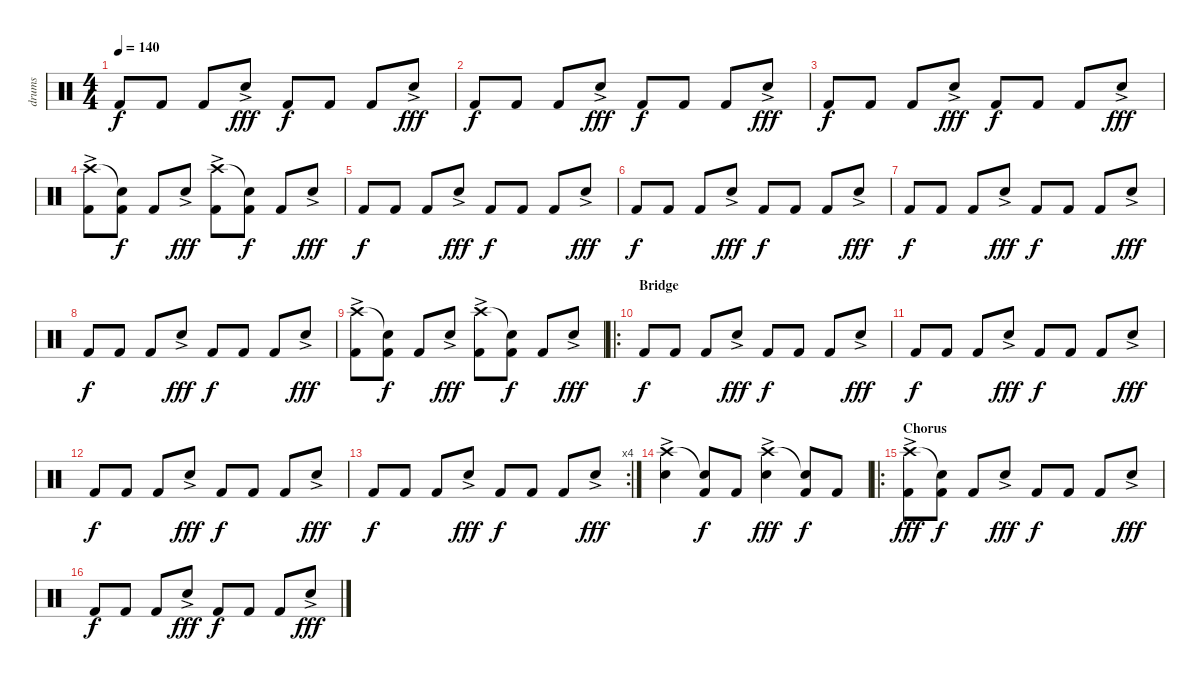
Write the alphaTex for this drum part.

\track ("drums" "drums") {instrument percussion}
\staff {score}
\articulation defaults
\ts (4 4)
\tempo 140
\clef neutral
\ks c "Kick (hit) 2".8{dy f} "Kick (hit) 2".8 "Kick (hit) 2".8 "Snare (hit) 2"{ac}.8{dy fff} "Kick (hit) 2".8{dy f} "Kick (hit) 2".8 "Kick (hit) 2".8 "Snare (hit) 2"{ac}.8{dy fff}
|
"Kick (hit) 2".8{dy f} "Kick (hit) 2".8 "Kick (hit) 2".8 "Snare (hit) 2"{ac}.8{dy fff} "Kick (hit) 2".8{dy f} "Kick (hit) 2".8 "Kick (hit) 2".8 "Snare (hit) 2"{ac}.8{dy fff} |
"Kick (hit) 2".8{dy f} "Kick (hit) 2".8 "Kick (hit) 2".8 "Snare (hit) 2"{ac}.8{dy fff} "Kick (hit) 2".8{dy f} "Kick (hit) 2".8 "Kick (hit) 2".8 "Snare (hit) 2"{ac}.8{dy fff} |
("Crash high (hit)"{ac} "Kick (hit) 2"{ac}).8 ("Snare (hit)"{t} "Kick (hit) 2").8{dy f} "Kick (hit) 2".8 "Snare (hit) 2"{ac}.8{dy fff} ("Crash high (hit)"{ac} "Kick (hit) 2"{ac}).8 ("Snare (hit)"{t} "Kick (hit) 2").8{dy f} "Kick (hit) 2".8 "Snare (hit) 2"{ac}.8{dy fff} |
"Kick (hit) 2".8{dy f} "Kick (hit) 2".8 "Kick (hit) 2".8 "Snare (hit) 2"{ac}.8{dy fff} "Kick (hit) 2".8{dy f} "Kick (hit) 2".8 "Kick (hit) 2".8 "Snare (hit) 2"{ac}.8{dy fff} |
"Kick (hit) 2".8{dy f} "Kick (hit) 2".8 "Kick (hit) 2".8 "Snare (hit) 2"{ac}.8{dy fff} "Kick (hit) 2".8{dy f} "Kick (hit) 2".8 "Kick (hit) 2".8 "Snare (hit) 2"{ac}.8{dy fff} |
"Kick (hit) 2".8{dy f} "Kick (hit) 2".8 "Kick (hit) 2".8 "Snare (hit) 2"{ac}.8{dy fff} "Kick (hit) 2".8{dy f} "Kick (hit) 2".8 "Kick (hit) 2".8 "Snare (hit) 2"{ac}.8{dy fff} |
"Kick (hit) 2".8{dy f} "Kick (hit) 2".8 "Kick (hit) 2".8 "Snare (hit) 2"{ac}.8{dy fff} "Kick (hit) 2".8{dy f} "Kick (hit) 2".8 "Kick (hit) 2".8 "Snare (hit) 2"{ac}.8{dy fff} |
("Crash high (hit)"{ac} "Kick (hit) 2"{ac}).8 ("Snare (hit)"{t} "Kick (hit) 2").8{dy f} "Kick (hit) 2".8 "Snare (hit) 2"{ac}.8{dy fff} ("Crash high (hit)"{ac} "Kick (hit) 2"{ac}).8 ("Snare (hit)"{t} "Kick (hit) 2").8{dy f} "Kick (hit) 2".8 "Snare (hit) 2"{ac}.8{dy fff} |
\ro
\section ("" "Bridge")
"Kick (hit) 2".8{dy f} "Kick (hit) 2".8 "Kick (hit) 2".8 "Snare (hit) 2"{ac}.8{dy fff} "Kick (hit) 2".8{dy f} "Kick (hit) 2".8 "Kick (hit) 2".8 "Snare (hit) 2"{ac}.8{dy fff} |
"Kick (hit) 2".8{dy f} "Kick (hit) 2".8 "Kick (hit) 2".8 "Snare (hit) 2"{ac}.8{dy fff} "Kick (hit) 2".8{dy f} "Kick (hit) 2".8 "Kick (hit) 2".8 "Snare (hit) 2"{ac}.8{dy fff} |
"Kick (hit) 2".8{dy f} "Kick (hit) 2".8 "Kick (hit) 2".8 "Snare (hit) 2"{ac}.8{dy fff} "Kick (hit) 2".8{dy f} "Kick (hit) 2".8 "Kick (hit) 2".8 "Snare (hit) 2"{ac}.8{dy fff} |
\rc 4 "Kick (hit) 2".8{dy f} "Kick (hit) 2".8 "Kick (hit) 2".8 "Snare (hit) 2"{ac}.8{dy fff} "Kick (hit) 2".8{dy f} "Kick (hit) 2".8 "Kick (hit) 2".8 "Snare (hit) 2"{ac}.8{dy fff}
|
("Crash high (hit)"{ac} "Snare (hit) 2"{ac}).4 ("Snare (hit)"{t} "Kick (hit) 2").8{dy f} "Kick (hit) 2".8 ("Crash high (hit)"{ac} "Snare (hit) 2"{ac}).4{dy fff} ("Snare (hit)"{t} "Kick (hit) 2").8{dy f} "Kick (hit) 2".8 |
\ro
\section ("" "Chorus")
("Crash high (hit)"{ac} "Kick (hit) 2"{ac}).8{dy fff} ("Snare (hit)"{t} "Kick (hit) 2").8{dy f} "Kick (hit) 2".8 "Snare (hit) 2"{ac}.8{dy fff} "Kick (hit) 2".8{dy f} "Kick (hit) 2".8 "Kick (hit) 2".8 "Snare (hit) 2"{ac}.8{dy fff} |
"Kick (hit) 2".8{dy f} "Kick (hit) 2".8 "Kick (hit) 2".8 "Snare (hit) 2"{ac}.8{dy fff} "Kick (hit) 2".8{dy f} "Kick (hit) 2".8 "Kick (hit) 2".8 "Snare (hit) 2"{ac}.8{dy fff}
